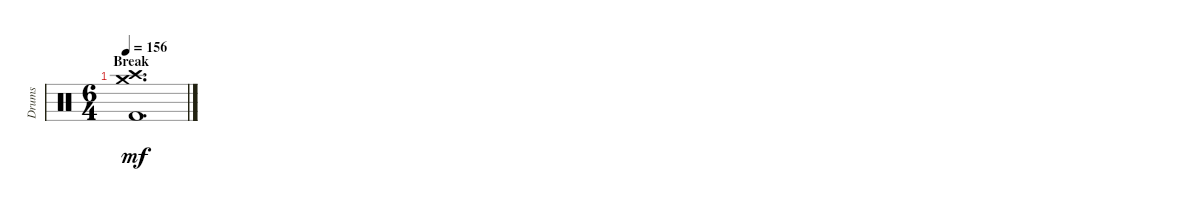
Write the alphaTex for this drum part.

\track ("Drums" "Drums") {instrument percussion}
\staff {score}
\articulation defaults
\ts (6 4)
\section ("" "Break")
\tempo 156
\clef neutral
\ks c
("Crash medium (hit)" "Crash high (hit)" "Kick (hit) 2").1{d dy mf}
